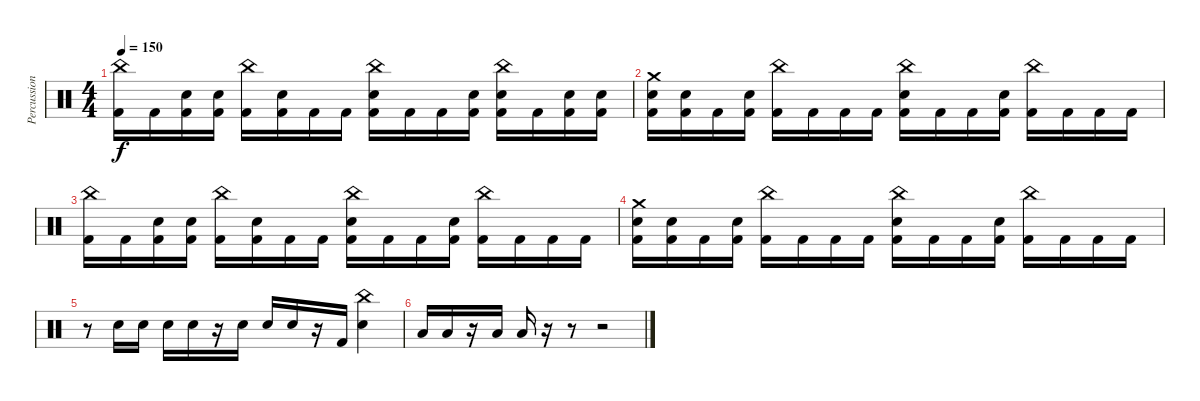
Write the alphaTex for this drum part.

\track ("Percussion" "Percussion") {instrument percussion}
\staff {score}
\articulation defaults
\ts (4 4)
\tempo 150
\clef neutral
\ks c
("China (hit)" "Kick (hit) 2").16{dy f} "Kick (hit) 2".16 ("Electric Snare (hit)" "Kick (hit) 2").16 ("Electric Snare (hit)" "Kick (hit) 2").16 ("China (hit)" "Kick (hit) 2").16 ("Electric Snare (hit)" "Kick (hit) 2").16 "Kick (hit) 2".16 "Kick (hit) 2".16 ("China (hit)" "Electric Snare (hit)" "Kick (hit) 2").16 "Kick (hit) 2".16 "Kick (hit) 2".16 ("Electric Snare (hit)" "Kick (hit) 2").16 ("China (hit)" "Electric Snare (hit)" "Kick (hit) 2").16 "Kick (hit) 2".16 ("Electric Snare (hit)" "Kick (hit) 2").16 ("Electric Snare (hit)" "Kick (hit) 2").16 |
("Crash medium (hit)" "Electric Snare (hit)" "Kick (hit) 2").16 ("Electric Snare (hit)" "Kick (hit) 2").16 "Kick (hit) 2".16 ("Electric Snare (hit)" "Kick (hit) 2").16 ("China (hit)" "Kick (hit) 2").16 "Kick (hit) 2".16 "Kick (hit) 2".16 "Kick (hit) 2".16 ("China (hit)" "Electric Snare (hit)" "Kick (hit) 2").16 "Kick (hit) 2".16 "Kick (hit) 2".16 ("Electric Snare (hit)" "Kick (hit) 2").16 ("China (hit)" "Kick (hit) 2").16 "Kick (hit) 2".16 "Kick (hit) 2".16 "Kick (hit) 2".16 |
("China (hit)" "Kick (hit) 2").16 "Kick (hit) 2".16 ("Electric Snare (hit)" "Kick (hit) 2").16 ("Electric Snare (hit)" "Kick (hit) 2").16 ("China (hit)" "Kick (hit) 2").16 ("Electric Snare (hit)" "Kick (hit) 2").16 "Kick (hit) 2".16 "Kick (hit) 2".16 ("China (hit)" "Electric Snare (hit)" "Kick (hit) 2").16 "Kick (hit) 2".16 "Kick (hit) 2".16 ("Electric Snare (hit)" "Kick (hit) 2").16 ("China (hit)" "Kick (hit) 2").16 "Kick (hit) 2".16 "Kick (hit) 2".16 "Kick (hit) 2".16 |
("Crash medium (hit)" "Electric Snare (hit)" "Kick (hit) 2").16 ("Electric Snare (hit)" "Kick (hit) 2").16 "Kick (hit) 2".16 ("Electric Snare (hit)" "Kick (hit) 2").16 ("China (hit)" "Kick (hit) 2").16 "Kick (hit) 2".16 "Kick (hit) 2".16 "Kick (hit) 2".16 ("China (hit)" "Electric Snare (hit)" "Kick (hit) 2").16 "Kick (hit) 2".16 "Kick (hit) 2".16 ("Electric Snare (hit)" "Kick (hit) 2").16 ("China (hit)" "Kick (hit) 2").16 "Kick (hit) 2".16 "Kick (hit) 2".16 "Kick (hit) 2".16 |
r.8 "Electric Snare (hit)".16 "Electric Snare (hit)".16 "Electric Snare (hit)".16 "Electric Snare (hit)".16 r.16 "Electric Snare (hit)".16 "Electric Snare (hit)".16 "Electric Snare (hit)".16 r.16 "Kick (hit) 2".16 ("China (hit)" "Electric Snare (hit)").4 |
"Low Floor Tom (hit)".16 "Low Floor Tom (hit)".16 r.16 "Low Floor Tom (hit)".16 "Low Floor Tom (hit)".16 r.16 r.8 r.2
